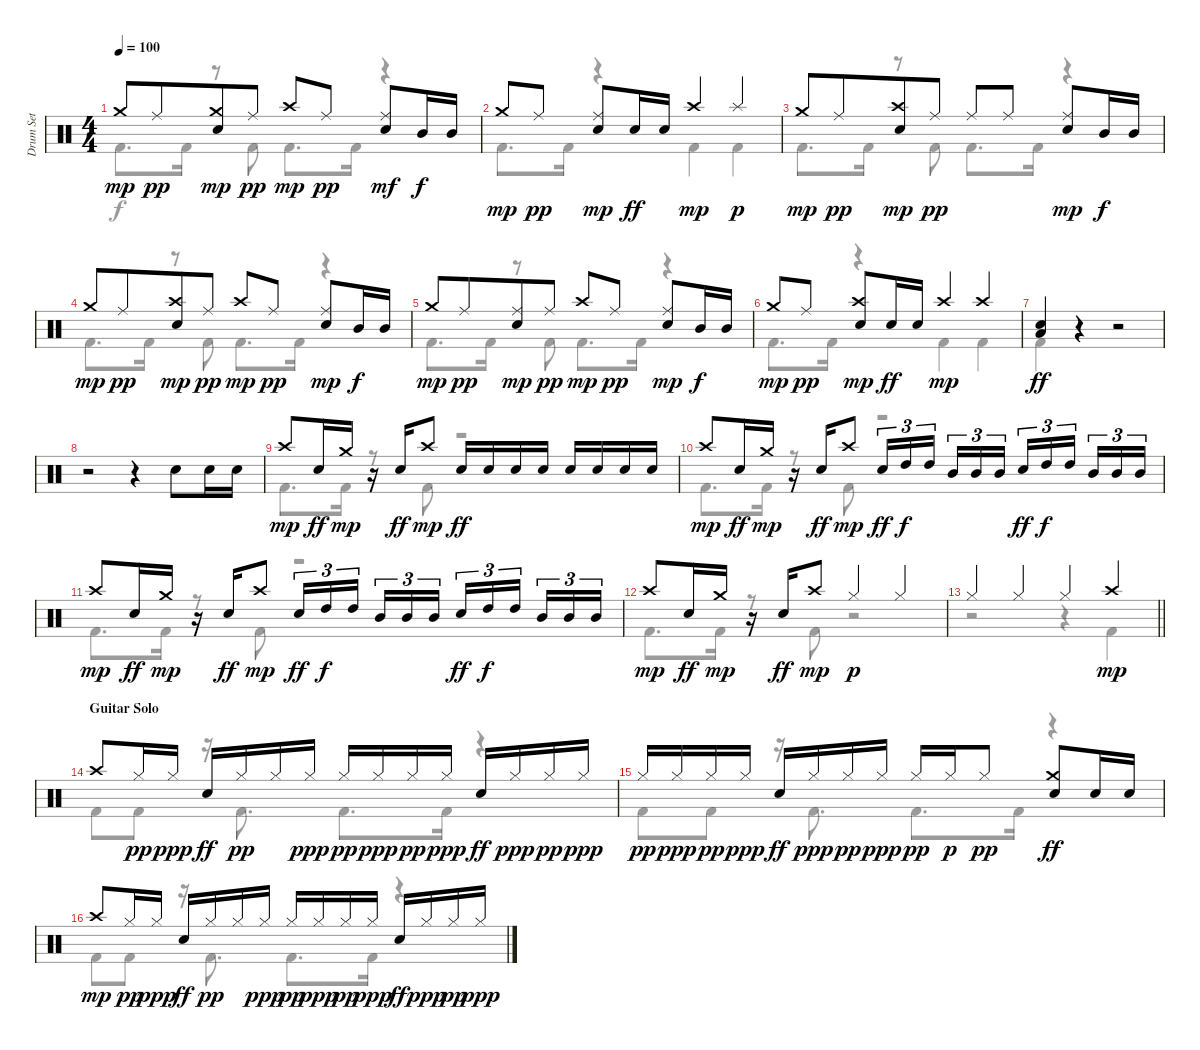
\track ("Drum Set" "Drum Set") {instrument percussion}
\staff {score}
\articulation defaults
\voice
\ts (4 4)
\tempo 100
\clef neutral
\ks c "Crash medium (hit)".8{dy mp} "Ride (middle)".8{dy pp beam merge}
("Electric Snare (hit)" "Crash medium (hit)").8{dy mp} "Ride (middle)".8{dy pp} "Crash high (hit)".8{dy mp} "Ride (middle)".8{dy pp} ("Electric Snare (hit)" "Ride (middle)").8{dy mf} "Mid Tom (hit)".16{dy f} "Mid Tom (hit)".16 |
"Crash medium (hit)".8{dy mp} "Ride (middle)".8{dy pp} ("Electric Snare (hit)" "Ride (middle)").8{dy mp} "Electric Snare (hit)".16{dy ff} "Electric Snare (hit)".16 "Crash high (hit)".4{dy mp} "Splash (hit)".4{dy p} |
"Crash medium (hit)".8{dy mp} "Ride (middle)".8{dy pp beam merge} ("Electric Snare (hit)" "Crash high (hit)").8{dy mp} "Ride (middle)".8{dy pp} "Ride (middle)".8 "Ride (middle)".8 ("Electric Snare (hit)" "Ride (middle)").8{dy mp} "Mid Tom (hit)".16{dy f} "Mid Tom (hit)".16 |
"Crash medium (hit)".8{dy mp} "Ride (middle)".8{dy pp beam merge} ("Electric Snare (hit)" "Crash high (hit)").8{dy mp} "Ride (middle)".8{dy pp} "Crash high (hit)".8{dy mp} "Ride (middle)".8{dy pp} ("Electric Snare (hit)" "Ride (middle)").8{dy mp} "Mid Tom (hit)".16{dy f} "Mid Tom (hit)".16 |
"Crash medium (hit)".8{dy mp} "Ride (middle)".8{dy pp beam merge} ("Electric Snare (hit)" "Ride (middle)").8{dy mp} "Ride (middle)".8{dy pp} "Crash high (hit)".8{dy mp} "Ride (middle)".8{dy pp} ("Electric Snare (hit)" "Ride (middle)").8{dy mp} "Mid Tom (hit)".16{dy f} "Mid Tom (hit)".16 |
"Crash medium (hit)".8{dy mp} "Ride (middle)".8{dy pp} ("Electric Snare (hit)" "Crash high (hit)").8{dy mp} "Electric Snare (hit)".16{dy ff} "Electric Snare (hit)".16 "Crash high (hit)".4{dy mp} "Crash high (hit)".4 |
("Electric Snare (hit)" "Low Tom (hit)").4{dy ff} r.4 r.2 |
r.2 r.4 "Electric Snare (hit)".8 "Electric Snare (hit)".16 "Electric Snare (hit)".16 |
"Crash high (hit)".8{dy mp} "Electric Snare (hit)".16{dy ff} "Crash medium (hit)".16{dy mp} r.16 "Electric Snare (hit)".16{dy ff} "Crash high (hit)".8{dy mp} "Electric Snare (hit)".16{dy ff} "Electric Snare (hit)".16 "Electric Snare (hit)".16 "Electric Snare (hit)".16 "Electric Snare (hit)".16 "Electric Snare (hit)".16 "Electric Snare (hit)".16 "Electric Snare (hit)".16 |
"Crash high (hit)".8{dy mp} "Electric Snare (hit)".16{dy ff} "Crash medium (hit)".16{dy mp} r.16 "Electric Snare (hit)".16{dy ff} "Crash high (hit)".8{dy mp} "Electric Snare (hit)".16{tu (3 2) dy ff} "High Tom (hit)".16{tu (3 2) dy f} "High Tom (hit)".16{tu (3 2) beam splitsecondary} "Mid Tom (hit)".16{tu (3 2)} "Mid Tom (hit)".16{tu (3 2)} "Mid Tom (hit)".16{tu (3 2)} "Electric Snare (hit)".16{tu (3 2) dy ff} "High Tom (hit)".16{tu (3 2) dy f} "High Tom (hit)".16{tu (3 2) beam splitsecondary} "Mid Tom (hit)".16{tu (3 2)} "Mid Tom (hit)".16{tu (3 2)} "Mid Tom (hit)".16{tu (3 2)} |
"Crash high (hit)".8{dy mp} "Electric Snare (hit)".16{dy ff} "Crash medium (hit)".16{dy mp} r.16 "Electric Snare (hit)".16{dy ff} "Crash high (hit)".8{dy mp} "Electric Snare (hit)".16{tu (3 2) dy ff} "High Tom (hit)".16{tu (3 2) dy f} "High Tom (hit)".16{tu (3 2) beam splitsecondary} "Mid Tom (hit)".16{tu (3 2)} "Mid Tom (hit)".16{tu (3 2)} "Mid Tom (hit)".16{tu (3 2)} "Electric Snare (hit)".16{tu (3 2) dy ff} "High Tom (hit)".16{tu (3 2) dy f} "High Tom (hit)".16{tu (3 2) beam splitsecondary} "Mid Tom (hit)".16{tu (3 2)} "Mid Tom (hit)".16{tu (3 2)} "Mid Tom (hit)".16{tu (3 2)} |
"Crash high (hit)".8{dy mp} "Electric Snare (hit)".16{dy ff} "Crash medium (hit)".16{dy mp} r.16 "Electric Snare (hit)".16{dy ff} "Crash high (hit)".8{dy mp} "Hi-Hat (closed)".4{dy p} "Hi-Hat (closed)".4 |
\barLineRight lightlight "Hi-Hat (closed)".4 "Hi-Hat (closed)".4 "Hi-Hat (closed)".4 "Crash high (hit)".4{dy mp}
|
\section ("" "Guitar Solo")
"Crash high (hit)".8 "Hi-Hat (closed)".16{dy pp} "Hi-Hat (closed)".16{dy ppp} "Electric Snare (hit)".16{dy ff} "Hi-Hat (closed)".16{dy pp} "Hi-Hat (closed)".16 "Hi-Hat (closed)".16{dy ppp} "Hi-Hat (closed)".16{dy pp} "Hi-Hat (closed)".16{dy ppp} "Hi-Hat (closed)".16{dy pp} "Hi-Hat (closed)".16{dy ppp} "Electric Snare (hit)".16{dy ff} "Hi-Hat (closed)".16{dy ppp} "Hi-Hat (closed)".16{dy pp} "Hi-Hat (closed)".16{dy ppp} |
"Hi-Hat (closed)".16{dy pp} "Hi-Hat (closed)".16{dy ppp} "Hi-Hat (closed)".16{dy pp} "Hi-Hat (closed)".16{dy ppp} "Electric Snare (hit)".16{dy ff} "Hi-Hat (closed)".16{dy ppp} "Hi-Hat (closed)".16{dy pp} "Hi-Hat (closed)".16{dy ppp} "Hi-Hat (closed)".16{dy pp} "Hi-Hat (closed)".16{dy p} "Hi-Hat (closed)".8{dy pp} ("Crash medium (hit)" "Electric Snare (hit)").8{dy ff} "Electric Snare (hit)".16 "Electric Snare (hit)".16 |
"Crash high (hit)".8{dy mp} "Hi-Hat (closed)".16{dy pp} "Hi-Hat (closed)".16{dy ppp} "Electric Snare (hit)".16{dy ff} "Hi-Hat (closed)".16{dy pp} "Hi-Hat (closed)".16 "Hi-Hat (closed)".16{dy ppp} "Hi-Hat (closed)".16{dy pp} "Hi-Hat (closed)".16{dy ppp} "Hi-Hat (closed)".16{dy pp} "Hi-Hat (closed)".16{dy ppp} "Electric Snare (hit)".16{dy ff} "Hi-Hat (closed)".16{dy ppp} "Hi-Hat (closed)".16{dy pp} "Hi-Hat (closed)".16{dy ppp}
\voice
\clef neutral
\ottava regular
\simile none
\ks c "Kick (hit) 2".8{d dy f} "Kick (hit) 2".16
r.8 "Kick (hit) 2".8 "Kick (hit) 2".8{d} "Kick (hit) 2".16 r.4 |
"Kick (hit) 2".8{d} "Kick (hit) 2".16 r.4 "Kick (hit) 2".4 "Kick (hit) 2".4 |
"Kick (hit) 2".8{d} "Kick (hit) 2".16 r.8 "Kick (hit) 2".8 "Kick (hit) 2".8{d} "Kick (hit) 2".16 r.4 |
"Kick (hit) 2".8{d} "Kick (hit) 2".16 r.8 "Kick (hit) 2".8 "Kick (hit) 2".8{d} "Kick (hit) 2".16 r.4 |
"Kick (hit) 2".8{d} "Kick (hit) 2".16 r.8 "Kick (hit) 2".8 "Kick (hit) 2".8{d} "Kick (hit) 2".16 r.4 |
"Kick (hit) 2".8{d} "Kick (hit) 2".16 r.4 "Kick (hit) 2".4 "Kick (hit) 2".4 |
"Kick (hit) 2".4 r.4 r.2 |
|
"Kick (hit) 2".8{d} "Kick (hit) 2".16 r.8 "Kick (hit) 2".8 r.2 |
"Kick (hit) 2".8{d} "Kick (hit) 2".16 r.8 "Kick (hit) 2".8 r.2 |
"Kick (hit) 2".8{d} "Kick (hit) 2".16 r.8 "Kick (hit) 2".8 r.2 |
"Kick (hit) 2".8{d} "Kick (hit) 2".16 r.8 "Kick (hit) 2".8 r.2 |
\barLineRight lightlight
r.2 r.4 "Kick (hit) 2".4 |
"Kick (hit) 2".8 "Kick (hit) 2".8 r.16 "Kick (hit) 2".8{d} "Kick (hit) 2".8{d} "Kick (hit) 2".16 r.4 |
"Kick (hit) 2".8 "Kick (hit) 2".8 r.16 "Kick (hit) 2".8{d} "Kick (hit) 2".8{d} "Kick (hit) 2".16 r.4 |
"Kick (hit) 2".8 "Kick (hit) 2".8 r.16 "Kick (hit) 2".8{d} "Kick (hit) 2".8{d} "Kick (hit) 2".16 r.4
